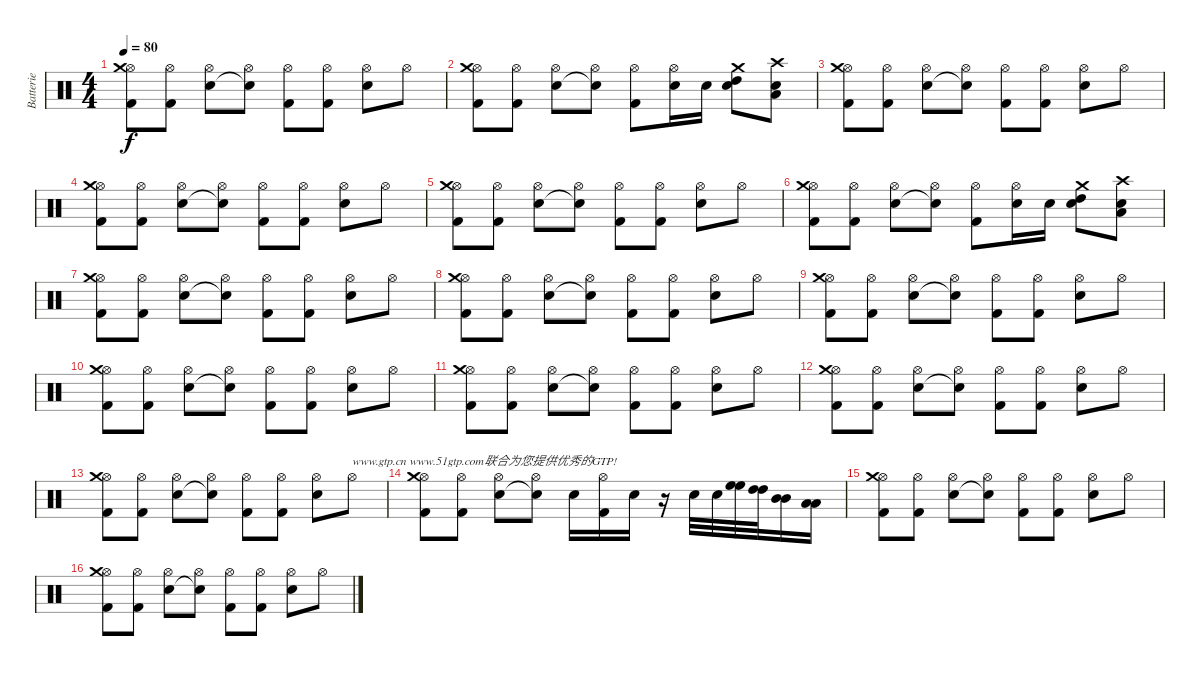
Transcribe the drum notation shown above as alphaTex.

\track ("Batterie" "Batterie") {instrument percussion}
\staff {score}
\articulation defaults
\ts (4 4)
\tempo 80
\clef neutral
\ks c
("Hi-Hat (open)" "Crash medium (hit)" "Kick (hit) 2").8{dy f} ("Hi-Hat (open)" "Kick (hit) 2").8 ("Hi-Hat (open)" "Snare (hit) 2").8 ("Hi-Hat (open)" "Snare (hit)"{t}).8 ("Hi-Hat (open)" "Kick (hit) 2").8 ("Hi-Hat (open)" "Kick (hit) 2").8 ("Hi-Hat (open)" "Snare (hit) 2").8 "Hi-Hat (open)".8 |
("Hi-Hat (open)" "Crash medium (hit)" "Kick (hit) 2").8 ("Hi-Hat (open)" "Kick (hit) 2").8 ("Hi-Hat (open)" "Snare (hit) 2").8 ("Hi-Hat (open)" "Snare (hit)"{t}).8 ("Hi-Hat (open)" "Kick (hit) 2").8 ("Hi-Hat (open)" "Snare (hit) 2").16 "Snare (hit) 2".16 ("Crash medium (hit)" "High Tom (hit)" "Snare (hit) 2").8 ("Crash high (hit)" "Low Tom (hit)" "Snare (hit) 2").8 |
("Hi-Hat (open)" "Crash medium (hit)" "Kick (hit) 2").8 ("Hi-Hat (open)" "Kick (hit) 2").8 ("Hi-Hat (open)" "Snare (hit) 2").8 ("Hi-Hat (open)" "Snare (hit)"{t}).8 ("Hi-Hat (open)" "Kick (hit) 2").8 ("Hi-Hat (open)" "Kick (hit) 2").8 ("Hi-Hat (open)" "Snare (hit) 2").8 "Hi-Hat (open)".8 |
("Hi-Hat (open)" "Crash medium (hit)" "Kick (hit) 2").8 ("Hi-Hat (open)" "Kick (hit) 2").8 ("Hi-Hat (open)" "Snare (hit) 2").8 ("Hi-Hat (open)" "Snare (hit)"{t}).8 ("Hi-Hat (open)" "Kick (hit) 2").8 ("Hi-Hat (open)" "Kick (hit) 2").8 ("Hi-Hat (open)" "Snare (hit) 2").8 "Hi-Hat (open)".8 |
("Hi-Hat (open)" "Crash medium (hit)" "Kick (hit) 2").8 ("Hi-Hat (open)" "Kick (hit) 2").8 ("Hi-Hat (open)" "Snare (hit) 2").8 ("Hi-Hat (open)" "Snare (hit)"{t}).8 ("Hi-Hat (open)" "Kick (hit) 2").8 ("Hi-Hat (open)" "Kick (hit) 2").8 ("Hi-Hat (open)" "Snare (hit) 2").8 "Hi-Hat (open)".8 |
("Hi-Hat (open)" "Crash medium (hit)" "Kick (hit) 2").8 ("Hi-Hat (open)" "Kick (hit) 2").8 ("Hi-Hat (open)" "Snare (hit) 2").8 ("Hi-Hat (open)" "Snare (hit)"{t}).8 ("Hi-Hat (open)" "Kick (hit) 2").8 ("Hi-Hat (open)" "Snare (hit) 2").16 "Snare (hit) 2".16 ("Crash medium (hit)" "High Tom (hit)" "Snare (hit) 2").8 ("Crash high (hit)" "Low Tom (hit)" "Snare (hit) 2").8 |
("Hi-Hat (open)" "Crash medium (hit)" "Kick (hit) 2").8 ("Hi-Hat (open)" "Kick (hit) 2").8 ("Hi-Hat (open)" "Snare (hit) 2").8 ("Hi-Hat (open)" "Snare (hit)"{t}).8 ("Hi-Hat (open)" "Kick (hit) 2").8 ("Hi-Hat (open)" "Kick (hit) 2").8 ("Hi-Hat (open)" "Snare (hit) 2").8 "Hi-Hat (open)".8 |
("Hi-Hat (open)" "Crash medium (hit)" "Kick (hit) 2").8 ("Hi-Hat (open)" "Kick (hit) 2").8 ("Hi-Hat (open)" "Snare (hit) 2").8 ("Hi-Hat (open)" "Snare (hit)"{t}).8 ("Hi-Hat (open)" "Kick (hit) 2").8 ("Hi-Hat (open)" "Kick (hit) 2").8 ("Hi-Hat (open)" "Snare (hit) 2").8 "Hi-Hat (open)".8 |
("Hi-Hat (open)" "Crash medium (hit)" "Kick (hit) 2").8 ("Hi-Hat (open)" "Kick (hit) 2").8 ("Hi-Hat (open)" "Snare (hit) 2").8 ("Hi-Hat (open)" "Snare (hit)"{t}).8 ("Hi-Hat (open)" "Kick (hit) 2").8 ("Hi-Hat (open)" "Kick (hit) 2").8 ("Hi-Hat (open)" "Snare (hit) 2").8 "Hi-Hat (open)".8 |
("Hi-Hat (open)" "Crash medium (hit)" "Kick (hit) 2").8 ("Hi-Hat (open)" "Kick (hit) 2").8 ("Hi-Hat (open)" "Snare (hit) 2").8 ("Hi-Hat (open)" "Snare (hit)"{t}).8 ("Hi-Hat (open)" "Kick (hit) 2").8 ("Hi-Hat (open)" "Kick (hit) 2").8 ("Hi-Hat (open)" "Snare (hit) 2").8 "Hi-Hat (open)".8 |
("Hi-Hat (open)" "Crash medium (hit)" "Kick (hit) 2").8 ("Hi-Hat (open)" "Kick (hit) 2").8 ("Hi-Hat (open)" "Snare (hit) 2").8 ("Hi-Hat (open)" "Snare (hit)"{t}).8 ("Hi-Hat (open)" "Kick (hit) 2").8 ("Hi-Hat (open)" "Kick (hit) 2").8 ("Hi-Hat (open)" "Snare (hit) 2").8 "Hi-Hat (open)".8 |
("Hi-Hat (open)" "Crash medium (hit)" "Kick (hit) 2").8 ("Hi-Hat (open)" "Kick (hit) 2").8 ("Hi-Hat (open)" "Snare (hit) 2").8 ("Hi-Hat (open)" "Snare (hit)"{t}).8 ("Hi-Hat (open)" "Kick (hit) 2").8 ("Hi-Hat (open)" "Kick (hit) 2").8 ("Hi-Hat (open)" "Snare (hit) 2").8 "Hi-Hat (open)".8 |
("Hi-Hat (open)" "Crash medium (hit)" "Kick (hit) 2").8 ("Hi-Hat (open)" "Kick (hit) 2").8 ("Hi-Hat (open)" "Snare (hit) 2").8 ("Hi-Hat (open)" "Snare (hit)"{t}).8 ("Hi-Hat (open)" "Kick (hit) 2").8 ("Hi-Hat (open)" "Kick (hit) 2").8 ("Hi-Hat (open)" "Snare (hit) 2").8 "Hi-Hat (open)".8{txt "www.gtp.cn www.51gtp.com联合为您提供优秀的GTP!"} |
("Hi-Hat (open)" "Crash medium (hit)" "Kick (hit) 2").8 ("Hi-Hat (open)" "Kick (hit) 2").8 ("Hi-Hat (open)" "Snare (hit) 2").8 ("Hi-Hat (open)" "Snare (hit)"{t}).8 "Snare (hit) 2".16 ("Hi-Hat (open)" "Kick (hit) 2").16 "Snare (hit) 2".16 r.16 "Snare (hit) 2".32 "Snare (hit) 2".32 ("High Floor Tom (hit)" "High Floor Tom (hit)").32 ("High Tom (hit)" "High Tom (hit)").32 ("Mid Tom (hit)" "Mid Tom (hit)").16 ("Low Tom (hit)" "Low Tom (hit)").16 |
("Hi-Hat (open)" "Crash medium (hit)" "Kick (hit) 2").8 ("Hi-Hat (open)" "Kick (hit) 2").8 ("Hi-Hat (open)" "Snare (hit) 2").8 ("Hi-Hat (open)" "Snare (hit)"{t}).8 ("Hi-Hat (open)" "Kick (hit) 2").8 ("Hi-Hat (open)" "Kick (hit) 2").8 ("Hi-Hat (open)" "Snare (hit) 2").8 "Hi-Hat (open)".8 |
("Hi-Hat (open)" "Crash medium (hit)" "Kick (hit) 2").8 ("Hi-Hat (open)" "Kick (hit) 2").8 ("Hi-Hat (open)" "Snare (hit) 2").8 ("Hi-Hat (open)" "Snare (hit)"{t}).8 ("Hi-Hat (open)" "Kick (hit) 2").8 ("Hi-Hat (open)" "Kick (hit) 2").8 ("Hi-Hat (open)" "Snare (hit) 2").8 "Hi-Hat (open)".8
